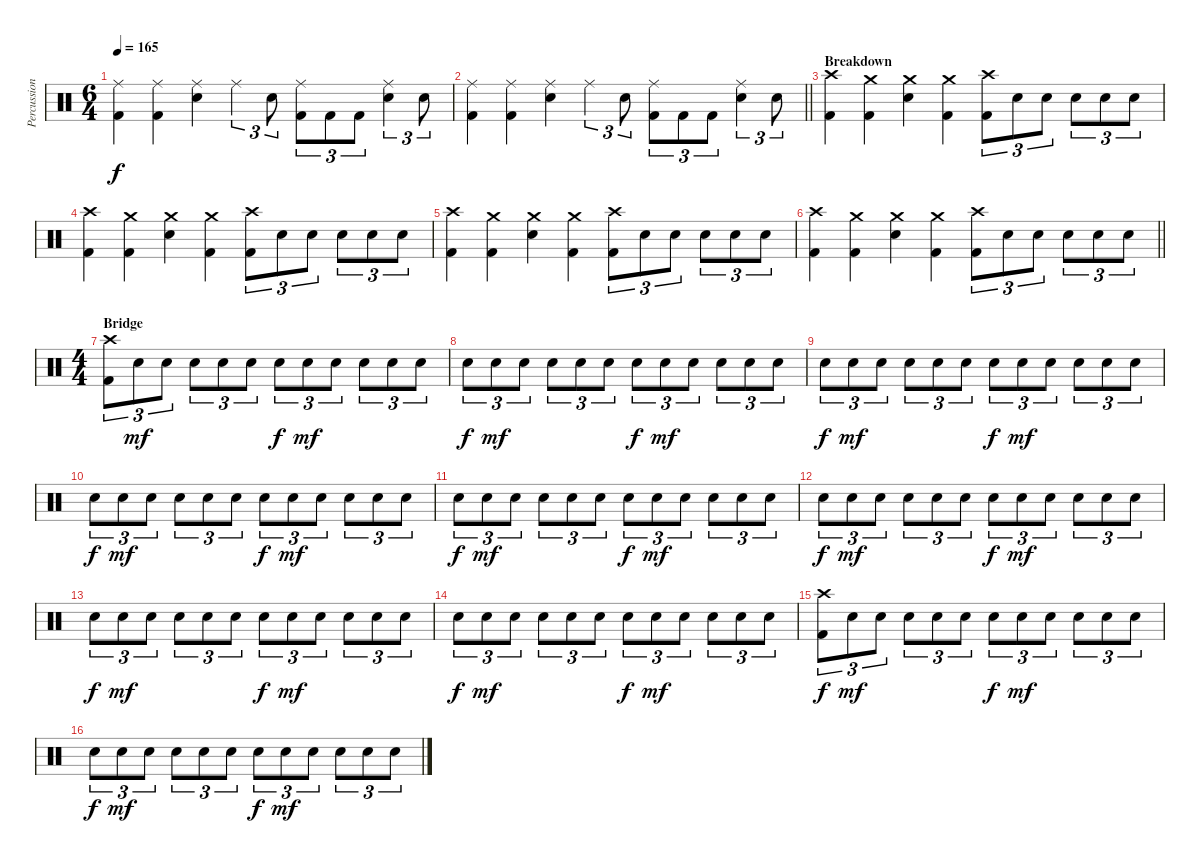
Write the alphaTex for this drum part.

\track ("Percussion" "Percussion") {instrument percussion}
\staff {score}
\articulation defaults
\ts (6 4)
\tempo 165
\clef neutral
\ks c
("Ride (middle)" "Kick (hit) 2").4{dy f} ("Ride (middle)" "Kick (hit) 2").4 ("Ride (middle)" "Electric Snare (hit)").4 "Ride (middle)".4{tu (3 2)} "Electric Snare (hit)".8{tu (3 2)} ("Ride (middle)" "Kick (hit) 2").8{tu (3 2)} "Kick (hit) 2".8{tu (3 2)} "Kick (hit) 2".8{tu (3 2)} ("Ride (middle)" "Electric Snare (hit)").4{tu (3 2)} "Electric Snare (hit)".8{tu (3 2)} |
\barLineRight lightlight
("Ride (middle)" "Kick (hit) 2").4 ("Ride (middle)" "Kick (hit) 2").4 ("Ride (middle)" "Electric Snare (hit)").4 "Ride (middle)".4{tu (3 2)} "Electric Snare (hit)".8{tu (3 2)} ("Ride (middle)" "Kick (hit) 2").8{tu (3 2)} "Kick (hit) 2".8{tu (3 2)} "Kick (hit) 2".8{tu (3 2)} ("Ride (middle)" "Electric Snare (hit)").4{tu (3 2)} "Electric Snare (hit)".8{tu (3 2)} |
\section ("" "Breakdown")
("Crash high (hit)" "Kick (hit) 2").4 ("Crash medium (hit)" "Kick (hit) 2").4 ("Crash medium (hit)" "Electric Snare (hit)").4 ("Crash medium (hit)" "Kick (hit) 2").4 ("Crash high (hit)" "Kick (hit) 2").8{tu (3 2)} "Electric Snare (hit)".8{tu (3 2)} "Electric Snare (hit)".8{tu (3 2)} "Electric Snare (hit)".8{tu (3 2)} "Electric Snare (hit)".8{tu (3 2)} "Electric Snare (hit)".8{tu (3 2)} |
("Crash high (hit)" "Kick (hit) 2").4 ("Crash medium (hit)" "Kick (hit) 2").4 ("Crash medium (hit)" "Electric Snare (hit)").4 ("Crash medium (hit)" "Kick (hit) 2").4 ("Crash high (hit)" "Kick (hit) 2").8{tu (3 2)} "Electric Snare (hit)".8{tu (3 2)} "Electric Snare (hit)".8{tu (3 2)} "Electric Snare (hit)".8{tu (3 2)} "Electric Snare (hit)".8{tu (3 2)} "Electric Snare (hit)".8{tu (3 2)} |
("Crash high (hit)" "Kick (hit) 2").4 ("Crash medium (hit)" "Kick (hit) 2").4 ("Crash medium (hit)" "Electric Snare (hit)").4 ("Crash medium (hit)" "Kick (hit) 2").4 ("Crash high (hit)" "Kick (hit) 2").8{tu (3 2)} "Electric Snare (hit)".8{tu (3 2)} "Electric Snare (hit)".8{tu (3 2)} "Electric Snare (hit)".8{tu (3 2)} "Electric Snare (hit)".8{tu (3 2)} "Electric Snare (hit)".8{tu (3 2)} |
\barLineRight lightlight
("Crash high (hit)" "Kick (hit) 2").4 ("Crash medium (hit)" "Kick (hit) 2").4 ("Crash medium (hit)" "Electric Snare (hit)").4 ("Crash medium (hit)" "Kick (hit) 2").4 ("Crash high (hit)" "Kick (hit) 2").8{tu (3 2)} "Electric Snare (hit)".8{tu (3 2)} "Electric Snare (hit)".8{tu (3 2)} "Electric Snare (hit)".8{tu (3 2)} "Electric Snare (hit)".8{tu (3 2)} "Electric Snare (hit)".8{tu (3 2)} |
\ts (4 4)
\section ("" "Bridge")
("Crash high (hit)" "Kick (hit) 2").8{tu (3 2)} "Electric Snare (hit)".8{tu (3 2) dy mf} "Electric Snare (hit)".8{tu (3 2)} "Electric Snare (hit)".8{tu (3 2)} "Electric Snare (hit)".8{tu (3 2)} "Electric Snare (hit)".8{tu (3 2)} "Electric Snare (hit)".8{tu (3 2) dy f} "Electric Snare (hit)".8{tu (3 2) dy mf} "Electric Snare (hit)".8{tu (3 2)} "Electric Snare (hit)".8{tu (3 2)} "Electric Snare (hit)".8{tu (3 2)} "Electric Snare (hit)".8{tu (3 2)} |
"Electric Snare (hit)".8{tu (3 2) dy f} "Electric Snare (hit)".8{tu (3 2) dy mf} "Electric Snare (hit)".8{tu (3 2)} "Electric Snare (hit)".8{tu (3 2)} "Electric Snare (hit)".8{tu (3 2)} "Electric Snare (hit)".8{tu (3 2)} "Electric Snare (hit)".8{tu (3 2) dy f} "Electric Snare (hit)".8{tu (3 2) dy mf} "Electric Snare (hit)".8{tu (3 2)} "Electric Snare (hit)".8{tu (3 2)} "Electric Snare (hit)".8{tu (3 2)} "Electric Snare (hit)".8{tu (3 2)} |
"Electric Snare (hit)".8{tu (3 2) dy f} "Electric Snare (hit)".8{tu (3 2) dy mf} "Electric Snare (hit)".8{tu (3 2)} "Electric Snare (hit)".8{tu (3 2)} "Electric Snare (hit)".8{tu (3 2)} "Electric Snare (hit)".8{tu (3 2)} "Electric Snare (hit)".8{tu (3 2) dy f} "Electric Snare (hit)".8{tu (3 2) dy mf} "Electric Snare (hit)".8{tu (3 2)} "Electric Snare (hit)".8{tu (3 2)} "Electric Snare (hit)".8{tu (3 2)} "Electric Snare (hit)".8{tu (3 2)} |
"Electric Snare (hit)".8{tu (3 2) dy f} "Electric Snare (hit)".8{tu (3 2) dy mf} "Electric Snare (hit)".8{tu (3 2)} "Electric Snare (hit)".8{tu (3 2)} "Electric Snare (hit)".8{tu (3 2)} "Electric Snare (hit)".8{tu (3 2)} "Electric Snare (hit)".8{tu (3 2) dy f} "Electric Snare (hit)".8{tu (3 2) dy mf} "Electric Snare (hit)".8{tu (3 2)} "Electric Snare (hit)".8{tu (3 2)} "Electric Snare (hit)".8{tu (3 2)} "Electric Snare (hit)".8{tu (3 2)} |
"Electric Snare (hit)".8{tu (3 2) dy f} "Electric Snare (hit)".8{tu (3 2) dy mf} "Electric Snare (hit)".8{tu (3 2)} "Electric Snare (hit)".8{tu (3 2)} "Electric Snare (hit)".8{tu (3 2)} "Electric Snare (hit)".8{tu (3 2)} "Electric Snare (hit)".8{tu (3 2) dy f} "Electric Snare (hit)".8{tu (3 2) dy mf} "Electric Snare (hit)".8{tu (3 2)} "Electric Snare (hit)".8{tu (3 2)} "Electric Snare (hit)".8{tu (3 2)} "Electric Snare (hit)".8{tu (3 2)} |
"Electric Snare (hit)".8{tu (3 2) dy f} "Electric Snare (hit)".8{tu (3 2) dy mf} "Electric Snare (hit)".8{tu (3 2)} "Electric Snare (hit)".8{tu (3 2)} "Electric Snare (hit)".8{tu (3 2)} "Electric Snare (hit)".8{tu (3 2)} "Electric Snare (hit)".8{tu (3 2) dy f} "Electric Snare (hit)".8{tu (3 2) dy mf} "Electric Snare (hit)".8{tu (3 2)} "Electric Snare (hit)".8{tu (3 2)} "Electric Snare (hit)".8{tu (3 2)} "Electric Snare (hit)".8{tu (3 2)} |
"Electric Snare (hit)".8{tu (3 2) dy f} "Electric Snare (hit)".8{tu (3 2) dy mf} "Electric Snare (hit)".8{tu (3 2)} "Electric Snare (hit)".8{tu (3 2)} "Electric Snare (hit)".8{tu (3 2)} "Electric Snare (hit)".8{tu (3 2)} "Electric Snare (hit)".8{tu (3 2) dy f} "Electric Snare (hit)".8{tu (3 2) dy mf} "Electric Snare (hit)".8{tu (3 2)} "Electric Snare (hit)".8{tu (3 2)} "Electric Snare (hit)".8{tu (3 2)} "Electric Snare (hit)".8{tu (3 2)} |
"Electric Snare (hit)".8{tu (3 2) dy f} "Electric Snare (hit)".8{tu (3 2) dy mf} "Electric Snare (hit)".8{tu (3 2)} "Electric Snare (hit)".8{tu (3 2)} "Electric Snare (hit)".8{tu (3 2)} "Electric Snare (hit)".8{tu (3 2)} "Electric Snare (hit)".8{tu (3 2) dy f} "Electric Snare (hit)".8{tu (3 2) dy mf} "Electric Snare (hit)".8{tu (3 2)} "Electric Snare (hit)".8{tu (3 2)} "Electric Snare (hit)".8{tu (3 2)} "Electric Snare (hit)".8{tu (3 2)} |
("Crash high (hit)" "Kick (hit) 2").8{tu (3 2) dy f} "Electric Snare (hit)".8{tu (3 2) dy mf} "Electric Snare (hit)".8{tu (3 2)} "Electric Snare (hit)".8{tu (3 2)} "Electric Snare (hit)".8{tu (3 2)} "Electric Snare (hit)".8{tu (3 2)} "Electric Snare (hit)".8{tu (3 2) dy f} "Electric Snare (hit)".8{tu (3 2) dy mf} "Electric Snare (hit)".8{tu (3 2)} "Electric Snare (hit)".8{tu (3 2)} "Electric Snare (hit)".8{tu (3 2)} "Electric Snare (hit)".8{tu (3 2)} |
"Electric Snare (hit)".8{tu (3 2) dy f} "Electric Snare (hit)".8{tu (3 2) dy mf} "Electric Snare (hit)".8{tu (3 2)} "Electric Snare (hit)".8{tu (3 2)} "Electric Snare (hit)".8{tu (3 2)} "Electric Snare (hit)".8{tu (3 2)} "Electric Snare (hit)".8{tu (3 2) dy f} "Electric Snare (hit)".8{tu (3 2) dy mf} "Electric Snare (hit)".8{tu (3 2)} "Electric Snare (hit)".8{tu (3 2)} "Electric Snare (hit)".8{tu (3 2)} "Electric Snare (hit)".8{tu (3 2)}
